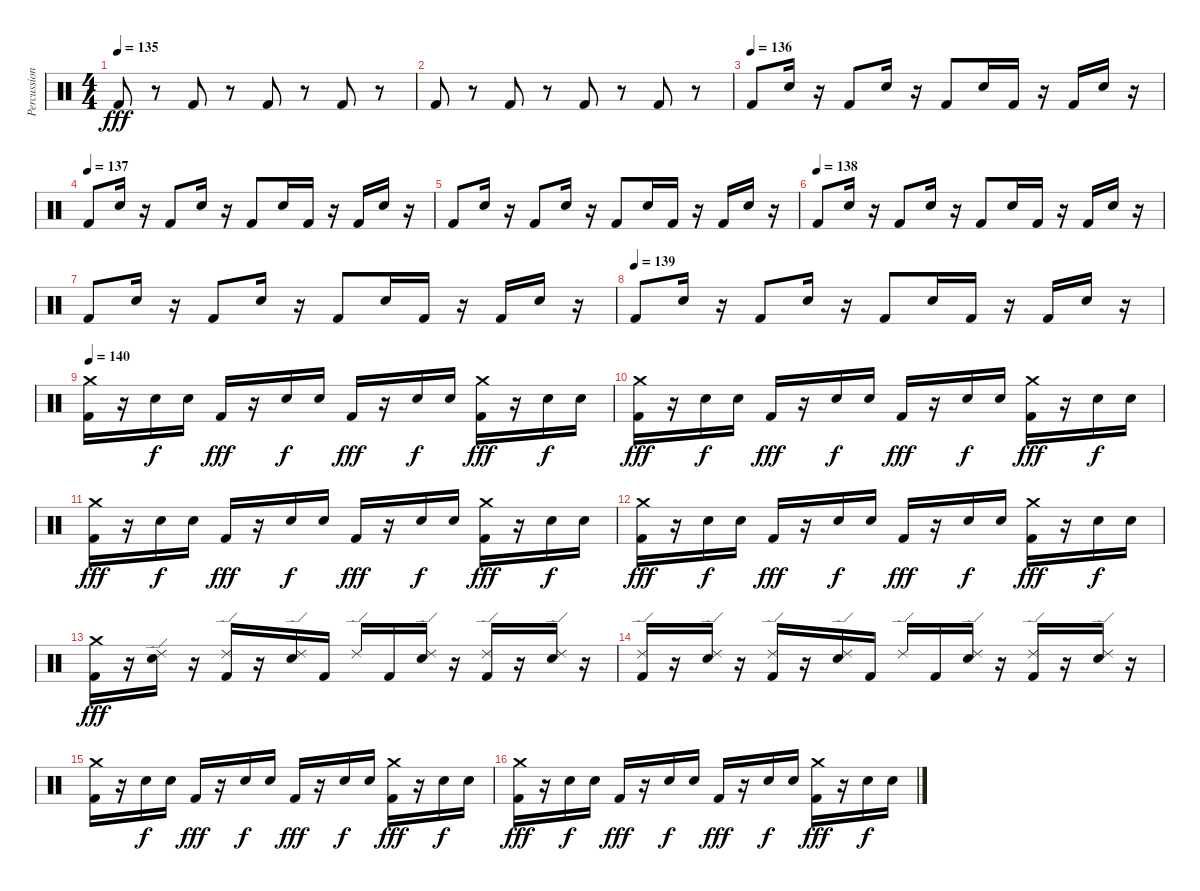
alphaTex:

\track ("Percussion" "Percussion") {instrument percussion}
\staff {score}
\articulation defaults
\ts (4 4)
\tempo 135
\clef neutral
\ks c "Kick (hit) 2".8{dy fff}
r.8 "Kick (hit) 2".8 r.8 "Kick (hit) 2".8 r.8 "Kick (hit) 2".8 r.8 |
"Kick (hit) 2".8 r.8 "Kick (hit) 2".8 r.8 "Kick (hit) 2".8 r.8 "Kick (hit) 2".8 r.8 |
\tempo (136)
"Kick (hit) 2".8 "Snare (hit) 2".16 r.16 "Kick (hit) 2".8 "Snare (hit) 2".16 r.16 "Kick (hit) 2".8 "Snare (hit) 2".16 "Kick (hit) 2".16 r.16 "Kick (hit) 2".16 "Snare (hit) 2".16 r.16 |
\tempo (137)
"Kick (hit) 2".8 "Snare (hit) 2".16 r.16 "Kick (hit) 2".8 "Snare (hit) 2".16 r.16 "Kick (hit) 2".8 "Snare (hit) 2".16 "Kick (hit) 2".16 r.16 "Kick (hit) 2".16 "Snare (hit) 2".16 r.16 |
"Kick (hit) 2".8 "Snare (hit) 2".16 r.16 "Kick (hit) 2".8 "Snare (hit) 2".16 r.16 "Kick (hit) 2".8 "Snare (hit) 2".16 "Kick (hit) 2".16 r.16 "Kick (hit) 2".16 "Snare (hit) 2".16 r.16 |
\tempo (138)
"Kick (hit) 2".8 "Snare (hit) 2".16 r.16 "Kick (hit) 2".8 "Snare (hit) 2".16 r.16 "Kick (hit) 2".8 "Snare (hit) 2".16 "Kick (hit) 2".16 r.16 "Kick (hit) 2".16 "Snare (hit) 2".16 r.16 |
"Kick (hit) 2".8 "Snare (hit) 2".16 r.16 "Kick (hit) 2".8 "Snare (hit) 2".16 r.16 "Kick (hit) 2".8 "Snare (hit) 2".16 "Kick (hit) 2".16 r.16 "Kick (hit) 2".16 "Snare (hit) 2".16 r.16 |
\tempo (139)
"Kick (hit) 2".8 "Snare (hit) 2".16 r.16 "Kick (hit) 2".8 "Snare (hit) 2".16 r.16 "Kick (hit) 2".8 "Snare (hit) 2".16 "Kick (hit) 2".16 r.16 "Kick (hit) 2".16 "Snare (hit) 2".16 r.16 |
\tempo 140
("Kick (hit) 2" "Crash medium (hit)").16 r.16 "Snare (hit) 2".16{dy f} "Snare (hit) 2".16 "Kick (hit) 2".16{dy fff} r.16 "Snare (hit) 2".16{dy f} "Snare (hit) 2".16 "Kick (hit) 2".16{dy fff} r.16 "Snare (hit) 2".16{dy f} "Snare (hit) 2".16 ("Kick (hit) 2" "Crash medium (hit)").16{dy fff} r.16 "Snare (hit) 2".16{dy f} "Snare (hit) 2".16 |
("Kick (hit) 2" "Crash medium (hit)").16{dy fff} r.16 "Snare (hit) 2".16{dy f} "Snare (hit) 2".16 "Kick (hit) 2".16{dy fff} r.16 "Snare (hit) 2".16{dy f} "Snare (hit) 2".16 "Kick (hit) 2".16{dy fff} r.16 "Snare (hit) 2".16{dy f} "Snare (hit) 2".16 ("Kick (hit) 2" "Crash medium (hit)").16{dy fff} r.16 "Snare (hit) 2".16{dy f} "Snare (hit) 2".16 |
("Kick (hit) 2" "Crash medium (hit)").16{dy fff} r.16 "Snare (hit) 2".16{dy f} "Snare (hit) 2".16 "Kick (hit) 2".16{dy fff} r.16 "Snare (hit) 2".16{dy f} "Snare (hit) 2".16 "Kick (hit) 2".16{dy fff} r.16 "Snare (hit) 2".16{dy f} "Snare (hit) 2".16 ("Kick (hit) 2" "Crash medium (hit)").16{dy fff} r.16 "Snare (hit) 2".16{dy f} "Snare (hit) 2".16 |
("Kick (hit) 2" "Crash medium (hit)").16{dy fff} r.16 "Snare (hit) 2".16{dy f} "Snare (hit) 2".16 "Kick (hit) 2".16{dy fff} r.16 "Snare (hit) 2".16{dy f} "Snare (hit) 2".16 "Kick (hit) 2".16{dy fff} r.16 "Snare (hit) 2".16{dy f} "Snare (hit) 2".16 ("Kick (hit) 2" "Crash medium (hit)").16{dy fff} r.16 "Snare (hit) 2".16{dy f} "Snare (hit) 2".16 |
("Kick (hit) 2" "Crash medium (hit)").16{dy fff} r.16 ("Snare (hit) 2" "Ride (edge) 2").16 r.16 ("Kick (hit) 2" "Ride (edge) 2").16 r.16 ("Snare (hit) 2" "Ride (edge) 2").16 "Kick (hit) 2".16 "Ride (edge) 2".16 "Kick (hit) 2".16 ("Snare (hit) 2" "Ride (edge) 2").16 r.16 ("Kick (hit) 2" "Ride (edge) 2").16 r.16 ("Snare (hit) 2" "Ride (edge) 2").16 r.16 |
("Kick (hit) 2" "Ride (edge) 2").16 r.16 ("Snare (hit) 2" "Ride (edge) 2").16 r.16 ("Kick (hit) 2" "Ride (edge) 2").16 r.16 ("Snare (hit) 2" "Ride (edge) 2").16 "Kick (hit) 2".16 "Ride (edge) 2".16 "Kick (hit) 2".16 ("Snare (hit) 2" "Ride (edge) 2").16 r.16 ("Kick (hit) 2" "Ride (edge) 2").16 r.16 ("Snare (hit) 2" "Ride (edge) 2").16 r.16 |
("Kick (hit) 2" "Crash medium (hit)").16 r.16 "Snare (hit) 2".16{dy f} "Snare (hit) 2".16 "Kick (hit) 2".16{dy fff} r.16 "Snare (hit) 2".16{dy f} "Snare (hit) 2".16 "Kick (hit) 2".16{dy fff} r.16 "Snare (hit) 2".16{dy f} "Snare (hit) 2".16 ("Kick (hit) 2" "Crash medium (hit)").16{dy fff} r.16 "Snare (hit) 2".16{dy f} "Snare (hit) 2".16 |
("Kick (hit) 2" "Crash medium (hit)").16{dy fff} r.16 "Snare (hit) 2".16{dy f} "Snare (hit) 2".16 "Kick (hit) 2".16{dy fff} r.16 "Snare (hit) 2".16{dy f} "Snare (hit) 2".16 "Kick (hit) 2".16{dy fff} r.16 "Snare (hit) 2".16{dy f} "Snare (hit) 2".16 ("Kick (hit) 2" "Crash medium (hit)").16{dy fff} r.16 "Snare (hit) 2".16{dy f} "Snare (hit) 2".16
